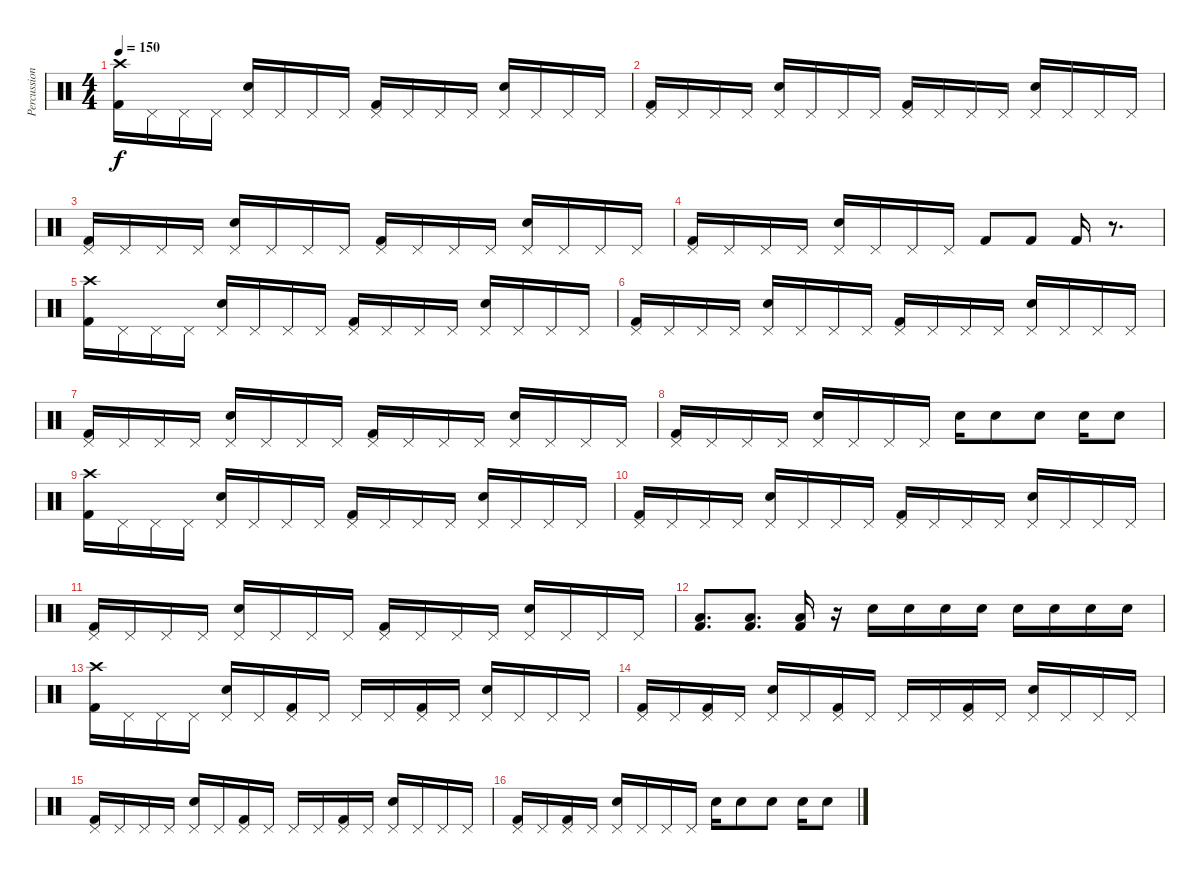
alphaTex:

\track ("Percussion" "Percussion") {instrument percussion}
\staff {score}
\articulation defaults
\ts (4 4)
\tempo 150
\clef neutral
\ks c
("Crash high (hit)" "Kick (hit) 2").16{dy f} "Pedal Hi-Hat (hit)".16 "Pedal Hi-Hat (hit)".16 "Pedal Hi-Hat (hit)".16 ("Pedal Hi-Hat (hit)" "Snare (hit) 2").16 "Pedal Hi-Hat (hit)".16 "Pedal Hi-Hat (hit)".16 "Pedal Hi-Hat (hit)".16 ("Pedal Hi-Hat (hit)" "Kick (hit) 2").16 "Pedal Hi-Hat (hit)".16 "Pedal Hi-Hat (hit)".16 "Pedal Hi-Hat (hit)".16 ("Pedal Hi-Hat (hit)" "Snare (hit) 2").16 "Pedal Hi-Hat (hit)".16 "Pedal Hi-Hat (hit)".16 "Pedal Hi-Hat (hit)".16 |
("Pedal Hi-Hat (hit)" "Kick (hit) 2").16 "Pedal Hi-Hat (hit)".16 "Pedal Hi-Hat (hit)".16 "Pedal Hi-Hat (hit)".16 ("Pedal Hi-Hat (hit)" "Snare (hit) 2").16 "Pedal Hi-Hat (hit)".16 "Pedal Hi-Hat (hit)".16 "Pedal Hi-Hat (hit)".16 ("Pedal Hi-Hat (hit)" "Kick (hit) 2").16 "Pedal Hi-Hat (hit)".16 "Pedal Hi-Hat (hit)".16 "Pedal Hi-Hat (hit)".16 ("Pedal Hi-Hat (hit)" "Snare (hit) 2").16 "Pedal Hi-Hat (hit)".16 "Pedal Hi-Hat (hit)".16 "Pedal Hi-Hat (hit)".16 |
("Pedal Hi-Hat (hit)" "Kick (hit) 2").16 "Pedal Hi-Hat (hit)".16 "Pedal Hi-Hat (hit)".16 "Pedal Hi-Hat (hit)".16 ("Pedal Hi-Hat (hit)" "Snare (hit) 2").16 "Pedal Hi-Hat (hit)".16 "Pedal Hi-Hat (hit)".16 "Pedal Hi-Hat (hit)".16 ("Pedal Hi-Hat (hit)" "Kick (hit) 2").16 "Pedal Hi-Hat (hit)".16 "Pedal Hi-Hat (hit)".16 "Pedal Hi-Hat (hit)".16 ("Pedal Hi-Hat (hit)" "Snare (hit) 2").16 "Pedal Hi-Hat (hit)".16 "Pedal Hi-Hat (hit)".16 "Pedal Hi-Hat (hit)".16 |
("Pedal Hi-Hat (hit)" "Kick (hit) 2").16 "Pedal Hi-Hat (hit)".16 "Pedal Hi-Hat (hit)".16 "Pedal Hi-Hat (hit)".16 ("Pedal Hi-Hat (hit)" "Snare (hit) 2").16 "Pedal Hi-Hat (hit)".16 "Pedal Hi-Hat (hit)".16 "Pedal Hi-Hat (hit)".16 "Kick (hit) 2".8 "Kick (hit) 2".8 "Kick (hit) 2".16 r.8{d} |
("Crash high (hit)" "Kick (hit) 2").16 "Pedal Hi-Hat (hit)".16 "Pedal Hi-Hat (hit)".16 "Pedal Hi-Hat (hit)".16 ("Pedal Hi-Hat (hit)" "Snare (hit) 2").16 "Pedal Hi-Hat (hit)".16 "Pedal Hi-Hat (hit)".16 "Pedal Hi-Hat (hit)".16 ("Pedal Hi-Hat (hit)" "Kick (hit) 2").16 "Pedal Hi-Hat (hit)".16 "Pedal Hi-Hat (hit)".16 "Pedal Hi-Hat (hit)".16 ("Pedal Hi-Hat (hit)" "Snare (hit) 2").16 "Pedal Hi-Hat (hit)".16 "Pedal Hi-Hat (hit)".16 "Pedal Hi-Hat (hit)".16 |
("Pedal Hi-Hat (hit)" "Kick (hit) 2").16 "Pedal Hi-Hat (hit)".16 "Pedal Hi-Hat (hit)".16 "Pedal Hi-Hat (hit)".16 ("Pedal Hi-Hat (hit)" "Snare (hit) 2").16 "Pedal Hi-Hat (hit)".16 "Pedal Hi-Hat (hit)".16 "Pedal Hi-Hat (hit)".16 ("Pedal Hi-Hat (hit)" "Kick (hit) 2").16 "Pedal Hi-Hat (hit)".16 "Pedal Hi-Hat (hit)".16 "Pedal Hi-Hat (hit)".16 ("Pedal Hi-Hat (hit)" "Snare (hit) 2").16 "Pedal Hi-Hat (hit)".16 "Pedal Hi-Hat (hit)".16 "Pedal Hi-Hat (hit)".16 |
("Pedal Hi-Hat (hit)" "Kick (hit) 2").16 "Pedal Hi-Hat (hit)".16 "Pedal Hi-Hat (hit)".16 "Pedal Hi-Hat (hit)".16 ("Pedal Hi-Hat (hit)" "Snare (hit) 2").16 "Pedal Hi-Hat (hit)".16 "Pedal Hi-Hat (hit)".16 "Pedal Hi-Hat (hit)".16 ("Pedal Hi-Hat (hit)" "Kick (hit) 2").16 "Pedal Hi-Hat (hit)".16 "Pedal Hi-Hat (hit)".16 "Pedal Hi-Hat (hit)".16 ("Pedal Hi-Hat (hit)" "Snare (hit) 2").16 "Pedal Hi-Hat (hit)".16 "Pedal Hi-Hat (hit)".16 "Pedal Hi-Hat (hit)".16 |
("Pedal Hi-Hat (hit)" "Kick (hit) 2").16 "Pedal Hi-Hat (hit)".16 "Pedal Hi-Hat (hit)".16 "Pedal Hi-Hat (hit)".16 ("Pedal Hi-Hat (hit)" "Snare (hit) 2").16 "Pedal Hi-Hat (hit)".16 "Pedal Hi-Hat (hit)".16 "Pedal Hi-Hat (hit)".16 "Snare (hit) 2".16 "Snare (hit) 2".8 "Snare (hit) 2".8 "Snare (hit) 2".16 "Snare (hit) 2".8 |
("Crash high (hit)" "Kick (hit) 2").16 "Pedal Hi-Hat (hit)".16 "Pedal Hi-Hat (hit)".16 "Pedal Hi-Hat (hit)".16 ("Pedal Hi-Hat (hit)" "Snare (hit) 2").16 "Pedal Hi-Hat (hit)".16 "Pedal Hi-Hat (hit)".16 "Pedal Hi-Hat (hit)".16 ("Pedal Hi-Hat (hit)" "Kick (hit) 2").16 "Pedal Hi-Hat (hit)".16 "Pedal Hi-Hat (hit)".16 "Pedal Hi-Hat (hit)".16 ("Pedal Hi-Hat (hit)" "Snare (hit) 2").16 "Pedal Hi-Hat (hit)".16 "Pedal Hi-Hat (hit)".16 "Pedal Hi-Hat (hit)".16 |
("Pedal Hi-Hat (hit)" "Kick (hit) 2").16 "Pedal Hi-Hat (hit)".16 "Pedal Hi-Hat (hit)".16 "Pedal Hi-Hat (hit)".16 ("Pedal Hi-Hat (hit)" "Snare (hit) 2").16 "Pedal Hi-Hat (hit)".16 "Pedal Hi-Hat (hit)".16 "Pedal Hi-Hat (hit)".16 ("Pedal Hi-Hat (hit)" "Kick (hit) 2").16 "Pedal Hi-Hat (hit)".16 "Pedal Hi-Hat (hit)".16 "Pedal Hi-Hat (hit)".16 ("Pedal Hi-Hat (hit)" "Snare (hit) 2").16 "Pedal Hi-Hat (hit)".16 "Pedal Hi-Hat (hit)".16 "Pedal Hi-Hat (hit)".16 |
("Pedal Hi-Hat (hit)" "Kick (hit) 2").16 "Pedal Hi-Hat (hit)".16 "Pedal Hi-Hat (hit)".16 "Pedal Hi-Hat (hit)".16 ("Pedal Hi-Hat (hit)" "Snare (hit) 2").16 "Pedal Hi-Hat (hit)".16 "Pedal Hi-Hat (hit)".16 "Pedal Hi-Hat (hit)".16 ("Pedal Hi-Hat (hit)" "Kick (hit) 2").16 "Pedal Hi-Hat (hit)".16 "Pedal Hi-Hat (hit)".16 "Pedal Hi-Hat (hit)".16 ("Pedal Hi-Hat (hit)" "Snare (hit) 2").16 "Pedal Hi-Hat (hit)".16 "Pedal Hi-Hat (hit)".16 "Pedal Hi-Hat (hit)".16 |
("Low Floor Tom (hit)" "Kick (hit) 2").8{d} ("Low Floor Tom (hit)" "Kick (hit) 2").8{d} ("Low Floor Tom (hit)" "Kick (hit) 2").16 r.16 "Snare (hit) 2".16 "Snare (hit) 2".16 "Snare (hit) 2".16 "Snare (hit) 2".16 "Snare (hit) 2".16 "Snare (hit) 2".16 "Snare (hit) 2".16 "Snare (hit) 2".16 |
("Crash high (hit)" "Kick (hit) 2").16 "Pedal Hi-Hat (hit)".16 "Pedal Hi-Hat (hit)".16 "Pedal Hi-Hat (hit)".16 ("Pedal Hi-Hat (hit)" "Snare (hit) 2").16 "Pedal Hi-Hat (hit)".16 ("Pedal Hi-Hat (hit)" "Kick (hit) 2").16 "Pedal Hi-Hat (hit)".16 "Pedal Hi-Hat (hit)".16 "Pedal Hi-Hat (hit)".16 ("Pedal Hi-Hat (hit)" "Kick (hit) 2").16 "Pedal Hi-Hat (hit)".16 ("Pedal Hi-Hat (hit)" "Snare (hit) 2").16 "Pedal Hi-Hat (hit)".16 "Pedal Hi-Hat (hit)".16 "Pedal Hi-Hat (hit)".16 |
("Pedal Hi-Hat (hit)" "Kick (hit) 2").16 "Pedal Hi-Hat (hit)".16 ("Pedal Hi-Hat (hit)" "Kick (hit) 2").16 "Pedal Hi-Hat (hit)".16 ("Pedal Hi-Hat (hit)" "Snare (hit) 2").16 "Pedal Hi-Hat (hit)".16 ("Pedal Hi-Hat (hit)" "Kick (hit) 2").16 "Pedal Hi-Hat (hit)".16 "Pedal Hi-Hat (hit)".16 "Pedal Hi-Hat (hit)".16 ("Pedal Hi-Hat (hit)" "Kick (hit) 2").16 "Pedal Hi-Hat (hit)".16 ("Pedal Hi-Hat (hit)" "Snare (hit) 2").16 "Pedal Hi-Hat (hit)".16 "Pedal Hi-Hat (hit)".16 "Pedal Hi-Hat (hit)".16 |
("Pedal Hi-Hat (hit)" "Kick (hit) 2").16 "Pedal Hi-Hat (hit)".16 "Pedal Hi-Hat (hit)".16 "Pedal Hi-Hat (hit)".16 ("Pedal Hi-Hat (hit)" "Snare (hit) 2").16 "Pedal Hi-Hat (hit)".16 ("Pedal Hi-Hat (hit)" "Kick (hit) 2").16 "Pedal Hi-Hat (hit)".16 "Pedal Hi-Hat (hit)".16 "Pedal Hi-Hat (hit)".16 ("Pedal Hi-Hat (hit)" "Kick (hit) 2").16 "Pedal Hi-Hat (hit)".16 ("Pedal Hi-Hat (hit)" "Snare (hit) 2").16 "Pedal Hi-Hat (hit)".16 "Pedal Hi-Hat (hit)".16 "Pedal Hi-Hat (hit)".16 |
("Pedal Hi-Hat (hit)" "Kick (hit) 2").16 "Pedal Hi-Hat (hit)".16 ("Pedal Hi-Hat (hit)" "Kick (hit) 2").16 "Pedal Hi-Hat (hit)".16 ("Pedal Hi-Hat (hit)" "Snare (hit) 2").16 "Pedal Hi-Hat (hit)".16 "Pedal Hi-Hat (hit)".16 "Pedal Hi-Hat (hit)".16 "Snare (hit) 2".16 "Snare (hit) 2".8 "Snare (hit) 2".8 "Snare (hit) 2".16 "Snare (hit) 2".8
